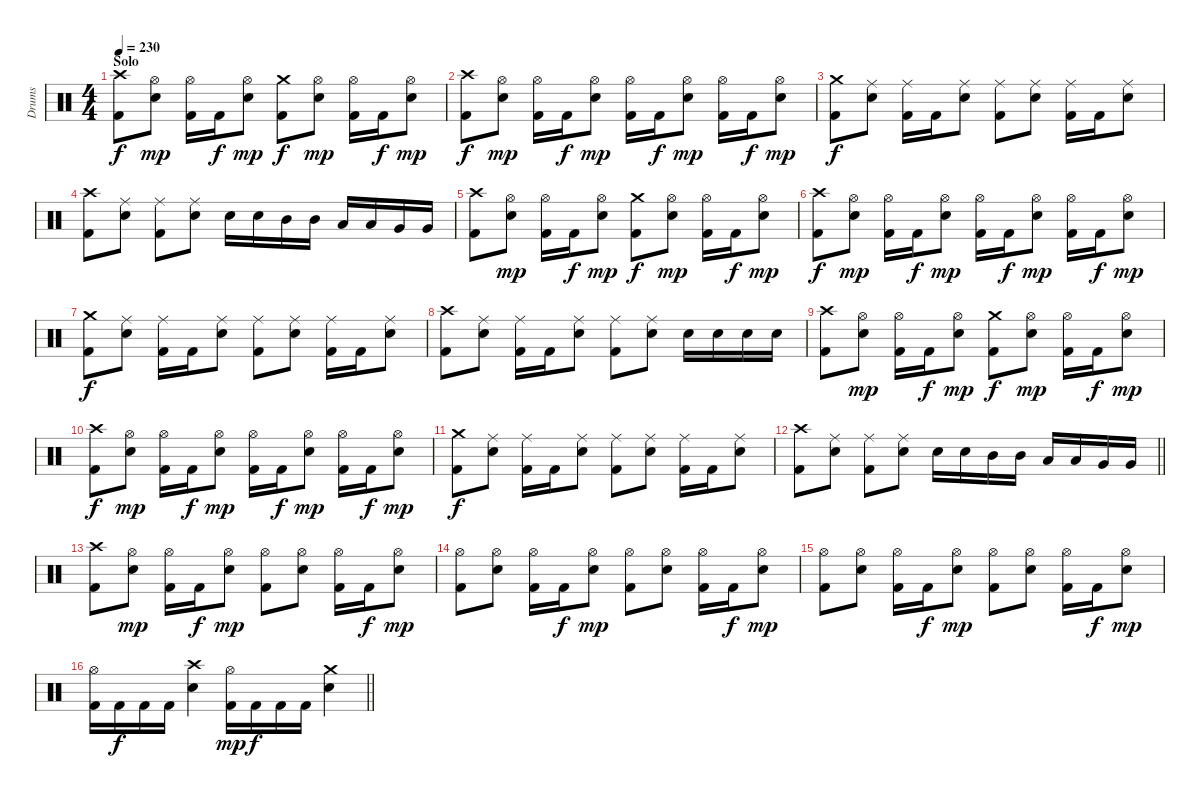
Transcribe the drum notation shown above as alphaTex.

\track ("Drums" "Drums") {instrument percussion}
\staff {score}
\articulation defaults
\ts (4 4)
\section ("" "Solo")
\tempo 230
\clef neutral
\ks c
("Crash high (hit)" "Kick (hit) 2").8{dy f} ("Hi-Hat (open)" "Snare (hit) 2").8{dy mp} ("Hi-Hat (open)" "Kick (hit) 2").16 "Kick (hit) 2".16{dy f} ("Hi-Hat (open)" "Snare (hit) 2").8{dy mp} ("Crash medium (hit)" "Kick (hit) 2").8{dy f} ("Hi-Hat (open)" "Snare (hit) 2").8{dy mp} ("Hi-Hat (open)" "Kick (hit) 2").16 "Kick (hit) 2".16{dy f} ("Hi-Hat (open)" "Snare (hit) 2").8{dy mp} |
("Crash high (hit)" "Kick (hit) 2").8{dy f} ("Hi-Hat (open)" "Snare (hit) 2").8{dy mp} ("Hi-Hat (open)" "Kick (hit) 2").16 "Kick (hit) 2".16{dy f} ("Hi-Hat (open)" "Snare (hit) 2").8{dy mp} ("Hi-Hat (open)" "Kick (hit) 2").16 "Kick (hit) 2".16{dy f} ("Hi-Hat (open)" "Snare (hit) 2").8{dy mp} ("Hi-Hat (open)" "Kick (hit) 2").16 "Kick (hit) 2".16{dy f} ("Hi-Hat (open)" "Snare (hit) 2").8{dy mp} |
("Crash medium (hit)" "Kick (hit) 2").8{dy f} ("Ride (middle)" "Snare (hit) 2").8 ("Ride (middle)" "Kick (hit) 2").16 "Kick (hit) 2".16 ("Ride (middle)" "Snare (hit) 2").8 ("Ride (middle)" "Kick (hit) 2").8 ("Ride (middle)" "Snare (hit) 2").8 ("Ride (middle)" "Kick (hit) 2").16 "Kick (hit) 2".16 ("Ride (middle)" "Snare (hit) 2").8 |
("Crash high (hit)" "Kick (hit) 2").8 ("Ride (middle)" "Snare (hit) 2").8 ("Ride (middle)" "Kick (hit) 2").8 ("Ride (middle)" "Snare (hit) 2").8 "Snare (hit) 2".16 "Snare (hit) 2".16 "Mid Tom (hit)".16 "Mid Tom (hit)".16 "Low Tom (hit)".16 "Low Tom (hit)".16 "Very Low Tom (hit)".16 "Very Low Tom (hit)".16 |
("Crash high (hit)" "Kick (hit) 2").8 ("Hi-Hat (open)" "Snare (hit) 2").8{dy mp} ("Hi-Hat (open)" "Kick (hit) 2").16 "Kick (hit) 2".16{dy f} ("Hi-Hat (open)" "Snare (hit) 2").8{dy mp} ("Crash medium (hit)" "Kick (hit) 2").8{dy f} ("Hi-Hat (open)" "Snare (hit) 2").8{dy mp} ("Hi-Hat (open)" "Kick (hit) 2").16 "Kick (hit) 2".16{dy f} ("Hi-Hat (open)" "Snare (hit) 2").8{dy mp} |
("Crash high (hit)" "Kick (hit) 2").8{dy f} ("Hi-Hat (open)" "Snare (hit) 2").8{dy mp} ("Hi-Hat (open)" "Kick (hit) 2").16 "Kick (hit) 2".16{dy f} ("Hi-Hat (open)" "Snare (hit) 2").8{dy mp} ("Hi-Hat (open)" "Kick (hit) 2").16 "Kick (hit) 2".16{dy f} ("Hi-Hat (open)" "Snare (hit) 2").8{dy mp} ("Hi-Hat (open)" "Kick (hit) 2").16 "Kick (hit) 2".16{dy f} ("Hi-Hat (open)" "Snare (hit) 2").8{dy mp} |
("Crash medium (hit)" "Kick (hit) 2").8{dy f} ("Ride (middle)" "Snare (hit) 2").8 ("Ride (middle)" "Kick (hit) 2").16 "Kick (hit) 2".16 ("Ride (middle)" "Snare (hit) 2").8 ("Ride (middle)" "Kick (hit) 2").8 ("Ride (middle)" "Snare (hit) 2").8 ("Ride (middle)" "Kick (hit) 2").16 "Kick (hit) 2".16 ("Ride (middle)" "Snare (hit) 2").8 |
("Crash high (hit)" "Kick (hit) 2").8 ("Ride (middle)" "Snare (hit) 2").8 ("Ride (middle)" "Kick (hit) 2").16 "Kick (hit) 2".16 ("Ride (middle)" "Snare (hit) 2").8 ("Ride (middle)" "Kick (hit) 2").8 ("Ride (middle)" "Snare (hit) 2").8 "Snare (hit) 2".16 "Snare (hit) 2".16 "Snare (hit) 2".16 "Snare (hit) 2".16 |
("Crash high (hit)" "Kick (hit) 2").8 ("Hi-Hat (open)" "Snare (hit) 2").8{dy mp} ("Hi-Hat (open)" "Kick (hit) 2").16 "Kick (hit) 2".16{dy f} ("Hi-Hat (open)" "Snare (hit) 2").8{dy mp} ("Crash medium (hit)" "Kick (hit) 2").8{dy f} ("Hi-Hat (open)" "Snare (hit) 2").8{dy mp} ("Hi-Hat (open)" "Kick (hit) 2").16 "Kick (hit) 2".16{dy f} ("Hi-Hat (open)" "Snare (hit) 2").8{dy mp} |
("Crash high (hit)" "Kick (hit) 2").8{dy f} ("Hi-Hat (open)" "Snare (hit) 2").8{dy mp} ("Hi-Hat (open)" "Kick (hit) 2").16 "Kick (hit) 2".16{dy f} ("Hi-Hat (open)" "Snare (hit) 2").8{dy mp} ("Hi-Hat (open)" "Kick (hit) 2").16 "Kick (hit) 2".16{dy f} ("Hi-Hat (open)" "Snare (hit) 2").8{dy mp} ("Hi-Hat (open)" "Kick (hit) 2").16 "Kick (hit) 2".16{dy f} ("Hi-Hat (open)" "Snare (hit) 2").8{dy mp} |
("Crash medium (hit)" "Kick (hit) 2").8{dy f} ("Ride (middle)" "Snare (hit) 2").8 ("Ride (middle)" "Kick (hit) 2").16 "Kick (hit) 2".16 ("Ride (middle)" "Snare (hit) 2").8 ("Ride (middle)" "Kick (hit) 2").8 ("Ride (middle)" "Snare (hit) 2").8 ("Ride (middle)" "Kick (hit) 2").16 "Kick (hit) 2".16 ("Ride (middle)" "Snare (hit) 2").8 |
\barLineRight lightlight
("Crash high (hit)" "Kick (hit) 2").8 ("Ride (middle)" "Snare (hit) 2").8 ("Ride (middle)" "Kick (hit) 2").8 ("Ride (middle)" "Snare (hit) 2").8 "Snare (hit) 2".16 "Snare (hit) 2".16 "Mid Tom (hit)".16 "Mid Tom (hit)".16 "Low Tom (hit)".16 "Low Tom (hit)".16 "Very Low Tom (hit)".16 "Very Low Tom (hit)".16 |
("Crash high (hit)" "Kick (hit) 2").8 ("Hi-Hat (open)" "Snare (hit) 2").8{dy mp} ("Hi-Hat (open)" "Kick (hit) 2").16 "Kick (hit) 2".16{dy f} ("Hi-Hat (open)" "Snare (hit) 2").8{dy mp} ("Hi-Hat (open)" "Kick (hit) 2").8 ("Hi-Hat (open)" "Snare (hit) 2").8 ("Hi-Hat (open)" "Kick (hit) 2").16 "Kick (hit) 2".16{dy f} ("Hi-Hat (open)" "Snare (hit) 2").8{dy mp} |
("Hi-Hat (open)" "Kick (hit) 2").8 ("Hi-Hat (open)" "Snare (hit) 2").8 ("Hi-Hat (open)" "Kick (hit) 2").16 "Kick (hit) 2".16{dy f} ("Hi-Hat (open)" "Snare (hit) 2").8{dy mp} ("Hi-Hat (open)" "Kick (hit) 2").8 ("Hi-Hat (open)" "Snare (hit) 2").8 ("Hi-Hat (open)" "Kick (hit) 2").16 "Kick (hit) 2".16{dy f} ("Hi-Hat (open)" "Snare (hit) 2").8{dy mp} |
("Hi-Hat (open)" "Kick (hit) 2").8 ("Hi-Hat (open)" "Snare (hit) 2").8 ("Hi-Hat (open)" "Kick (hit) 2").16 "Kick (hit) 2".16{dy f} ("Hi-Hat (open)" "Snare (hit) 2").8{dy mp} ("Hi-Hat (open)" "Kick (hit) 2").8 ("Hi-Hat (open)" "Snare (hit) 2").8 ("Hi-Hat (open)" "Kick (hit) 2").16 "Kick (hit) 2".16{dy f} ("Hi-Hat (open)" "Snare (hit) 2").8{dy mp} |
\barLineRight lightlight
("Hi-Hat (open)" "Kick (hit) 2").16 "Kick (hit) 2".16{dy f} "Kick (hit) 2".16 "Kick (hit) 2".16 ("Crash high (hit)" "Snare (hit) 2").4 ("Hi-Hat (open)" "Kick (hit) 2").16{dy mp} "Kick (hit) 2".16{dy f} "Kick (hit) 2".16 "Kick (hit) 2".16 ("Crash medium (hit)" "Snare (hit) 2").4
